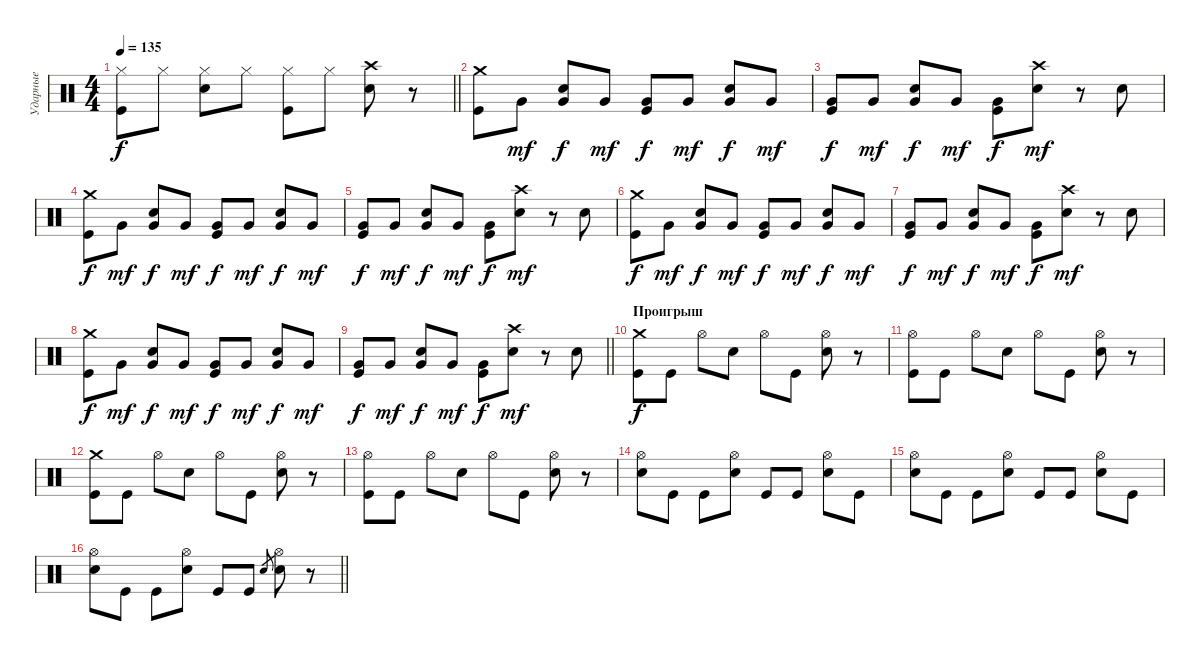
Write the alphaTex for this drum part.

\track ("Ударные" "Ударные") {instrument percussion}
\staff {score}
\articulation defaults
\ts (4 4)
\tempo 135
\clef neutral
\barLineRight lightlight
\ks c
("Hi-Hat (closed)" "Kick (hit)").8{dy f} "Hi-Hat (closed)".8 ("Hi-Hat (closed)" "Electric Snare (hit)").8 "Hi-Hat (closed)".8 ("Hi-Hat (closed)" "Kick (hit)").8 "Hi-Hat (closed)".8 ("Crash high (hit)" "Electric Snare (hit)").8 r.8 |
\section ("" " ")
("Crash medium (hit)" "Kick (hit)").8 "Very Low Tom (hit)".8{dy mf} ("Very Low Tom (hit)" "Electric Snare (hit)").8{dy f} "Very Low Tom (hit)".8{dy mf} ("Very Low Tom (hit)" "Kick (hit)").8{dy f} "Very Low Tom (hit)".8{dy mf} ("Very Low Tom (hit)" "Electric Snare (hit)").8{dy f} "Very Low Tom (hit)".8{dy mf} |
("Very Low Tom (hit)" "Kick (hit)").8{dy f} "Very Low Tom (hit)".8{dy mf} ("Very Low Tom (hit)" "Electric Snare (hit)").8{dy f} "Very Low Tom (hit)".8{dy mf} ("Very Low Tom (hit)" "Kick (hit)").8{dy f} ("Crash high (hit)" "Electric Snare (hit)").8{dy mf} r.8 "Electric Snare (hit)".8 |
("Crash medium (hit)" "Kick (hit)").8{dy f} "Very Low Tom (hit)".8{dy mf} ("Very Low Tom (hit)" "Electric Snare (hit)").8{dy f} "Very Low Tom (hit)".8{dy mf} ("Very Low Tom (hit)" "Kick (hit)").8{dy f} "Very Low Tom (hit)".8{dy mf} ("Very Low Tom (hit)" "Electric Snare (hit)").8{dy f} "Very Low Tom (hit)".8{dy mf} |
("Very Low Tom (hit)" "Kick (hit)").8{dy f} "Very Low Tom (hit)".8{dy mf} ("Very Low Tom (hit)" "Electric Snare (hit)").8{dy f} "Very Low Tom (hit)".8{dy mf} ("Very Low Tom (hit)" "Kick (hit)").8{dy f} ("Crash high (hit)" "Electric Snare (hit)").8{dy mf} r.8 "Electric Snare (hit)".8 |
("Crash medium (hit)" "Kick (hit)").8{dy f} "Very Low Tom (hit)".8{dy mf} ("Very Low Tom (hit)" "Electric Snare (hit)").8{dy f} "Very Low Tom (hit)".8{dy mf} ("Very Low Tom (hit)" "Kick (hit)").8{dy f} "Very Low Tom (hit)".8{dy mf} ("Very Low Tom (hit)" "Electric Snare (hit)").8{dy f} "Very Low Tom (hit)".8{dy mf} |
("Very Low Tom (hit)" "Kick (hit)").8{dy f} "Very Low Tom (hit)".8{dy mf} ("Very Low Tom (hit)" "Electric Snare (hit)").8{dy f} "Very Low Tom (hit)".8{dy mf} ("Very Low Tom (hit)" "Kick (hit)").8{dy f} ("Crash high (hit)" "Electric Snare (hit)").8{dy mf} r.8 "Electric Snare (hit)".8 |
("Crash medium (hit)" "Kick (hit)").8{dy f} "Very Low Tom (hit)".8{dy mf} ("Very Low Tom (hit)" "Electric Snare (hit)").8{dy f} "Very Low Tom (hit)".8{dy mf} ("Very Low Tom (hit)" "Kick (hit)").8{dy f} "Very Low Tom (hit)".8{dy mf} ("Very Low Tom (hit)" "Electric Snare (hit)").8{dy f} "Very Low Tom (hit)".8{dy mf} |
\barLineRight lightlight
("Very Low Tom (hit)" "Kick (hit)").8{dy f} "Very Low Tom (hit)".8{dy mf} ("Very Low Tom (hit)" "Electric Snare (hit)").8{dy f} "Very Low Tom (hit)".8{dy mf} ("Very Low Tom (hit)" "Kick (hit)").8{dy f} ("Crash high (hit)" "Electric Snare (hit)").8{dy mf} r.8 "Electric Snare (hit)".8 |
\section ("" "Проигрыш")
("Crash medium (hit)" "Kick (hit)").8{dy f} "Kick (hit)".8 "Hi-Hat (open)".8 "Electric Snare (hit)".8 "Hi-Hat (open)".8 "Kick (hit)".8 ("Hi-Hat (open)" "Electric Snare (hit)").8 r.8 |
("Hi-Hat (open)" "Kick (hit)").8 "Kick (hit)".8 "Hi-Hat (open)".8 "Electric Snare (hit)".8 "Hi-Hat (open)".8 "Kick (hit)".8 ("Hi-Hat (open)" "Electric Snare (hit)").8 r.8 |
("Crash medium (hit)" "Kick (hit)").8 "Kick (hit)".8 "Hi-Hat (open)".8 "Electric Snare (hit)".8 "Hi-Hat (open)".8 "Kick (hit)".8 ("Hi-Hat (open)" "Electric Snare (hit)").8 r.8 |
("Hi-Hat (open)" "Kick (hit)").8 "Kick (hit)".8 "Hi-Hat (open)".8 "Electric Snare (hit)".8 "Hi-Hat (open)".8 "Kick (hit)".8 ("Hi-Hat (open)" "Electric Snare (hit)").8 r.8 |
("Hi-Hat (open)" "Electric Snare (hit)").8 "Kick (hit)".8 "Kick (hit)".8 ("Hi-Hat (open)" "Electric Snare (hit)").8 "Kick (hit)".8 "Kick (hit)".8 ("Hi-Hat (open)" "Electric Snare (hit)").8 "Kick (hit)".8 |
("Hi-Hat (open)" "Electric Snare (hit)").8 "Kick (hit)".8 "Kick (hit)".8 ("Hi-Hat (open)" "Electric Snare (hit)").8 "Kick (hit)".8 "Kick (hit)".8 ("Hi-Hat (open)" "Electric Snare (hit)").8 "Kick (hit)".8 |
\barLineRight lightlight
("Hi-Hat (open)" "Electric Snare (hit)").8 "Kick (hit)".8 "Kick (hit)".8 ("Hi-Hat (open)" "Electric Snare (hit)").8 "Kick (hit)".8 "Kick (hit)".8 "Electric Snare (hit)".8{gr} ("Hi-Hat (open)" "Electric Snare (hit)").8 r.8
